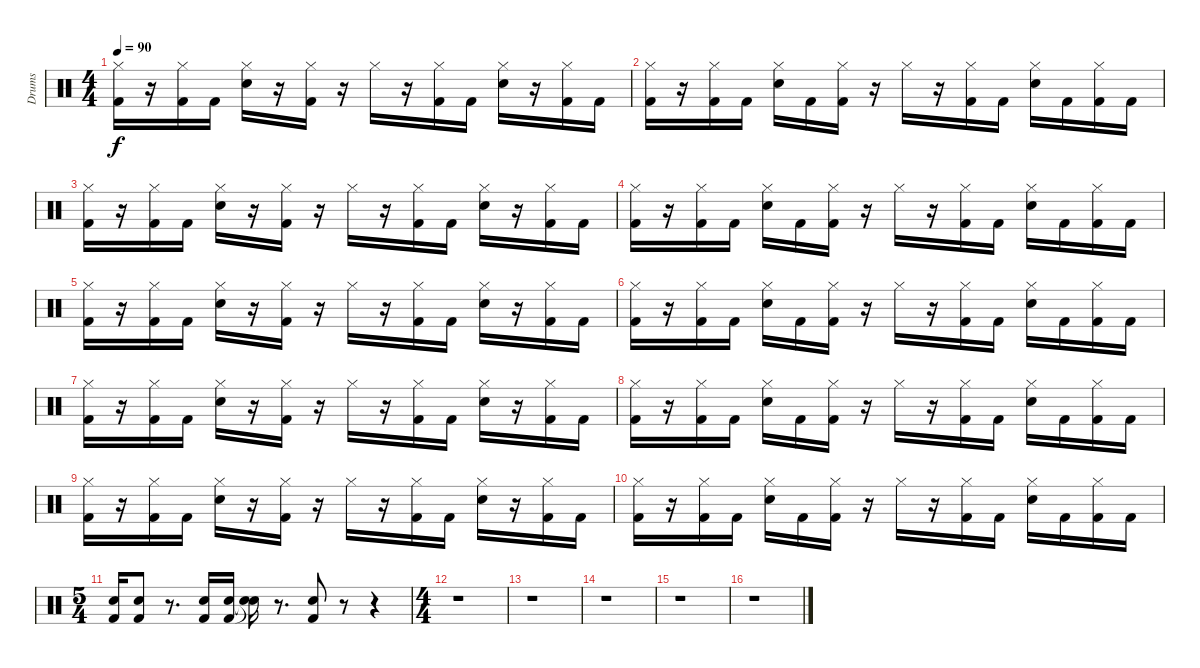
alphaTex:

\track ("Drums" "Drums") {instrument percussion}
\staff {score}
\articulation defaults
\ts (4 4)
\tempo 90
\clef neutral
\ks c
("Hi-Hat (closed)" "Kick (hit) 2").16{dy f} r.16 ("Hi-Hat (closed)" "Kick (hit) 2").16 "Kick (hit) 2".16 ("Hi-Hat (closed)" "Electric Snare (hit)").16 r.16 ("Hi-Hat (closed)" "Kick (hit) 2").16 r.16 "Hi-Hat (closed)".16 r.16 ("Hi-Hat (closed)" "Kick (hit) 2").16 "Kick (hit) 2".16 ("Hi-Hat (closed)" "Electric Snare (hit)").16 r.16 ("Kick (hit) 2" "Hi-Hat (closed)").16 "Kick (hit) 2".16 |
("Hi-Hat (closed)" "Kick (hit) 2").16 r.16 ("Hi-Hat (closed)" "Kick (hit) 2").16 "Kick (hit) 2".16 ("Hi-Hat (closed)" "Electric Snare (hit)").16 "Kick (hit) 2".16 ("Hi-Hat (closed)" "Kick (hit) 2").16 r.16 "Hi-Hat (closed)".16 r.16 ("Hi-Hat (closed)" "Kick (hit) 2").16 "Kick (hit) 2".16 ("Hi-Hat (closed)" "Electric Snare (hit)").16 "Kick (hit) 2".16 ("Kick (hit) 2" "Hi-Hat (closed)").16 "Kick (hit) 2".16 |
("Hi-Hat (closed)" "Kick (hit) 2").16 r.16 ("Hi-Hat (closed)" "Kick (hit) 2").16 "Kick (hit) 2".16 ("Hi-Hat (closed)" "Electric Snare (hit)").16 r.16 ("Hi-Hat (closed)" "Kick (hit) 2").16 r.16 "Hi-Hat (closed)".16 r.16 ("Hi-Hat (closed)" "Kick (hit) 2").16 "Kick (hit) 2".16 ("Hi-Hat (closed)" "Electric Snare (hit)").16 r.16 ("Kick (hit) 2" "Hi-Hat (closed)").16 "Kick (hit) 2".16 |
("Hi-Hat (closed)" "Kick (hit) 2").16 r.16 ("Hi-Hat (closed)" "Kick (hit) 2").16 "Kick (hit) 2".16 ("Hi-Hat (closed)" "Electric Snare (hit)").16 "Kick (hit) 2".16 ("Hi-Hat (closed)" "Kick (hit) 2").16 r.16 "Hi-Hat (closed)".16 r.16 ("Hi-Hat (closed)" "Kick (hit) 2").16 "Kick (hit) 2".16 ("Hi-Hat (closed)" "Electric Snare (hit)").16 "Kick (hit) 2".16 ("Kick (hit) 2" "Hi-Hat (closed)").16 "Kick (hit) 2".16 |
("Hi-Hat (closed)" "Kick (hit) 2").16 r.16 ("Hi-Hat (closed)" "Kick (hit) 2").16 "Kick (hit) 2".16 ("Hi-Hat (closed)" "Electric Snare (hit)").16 r.16 ("Hi-Hat (closed)" "Kick (hit) 2").16 r.16 "Hi-Hat (closed)".16 r.16 ("Hi-Hat (closed)" "Kick (hit) 2").16 "Kick (hit) 2".16 ("Hi-Hat (closed)" "Electric Snare (hit)").16 r.16 ("Kick (hit) 2" "Hi-Hat (closed)").16 "Kick (hit) 2".16 |
("Hi-Hat (closed)" "Kick (hit) 2").16 r.16 ("Hi-Hat (closed)" "Kick (hit) 2").16 "Kick (hit) 2".16 ("Hi-Hat (closed)" "Electric Snare (hit)").16 "Kick (hit) 2".16 ("Hi-Hat (closed)" "Kick (hit) 2").16 r.16 "Hi-Hat (closed)".16 r.16 ("Hi-Hat (closed)" "Kick (hit) 2").16 "Kick (hit) 2".16 ("Hi-Hat (closed)" "Electric Snare (hit)").16 "Kick (hit) 2".16 ("Kick (hit) 2" "Hi-Hat (closed)").16 "Kick (hit) 2".16 |
("Hi-Hat (closed)" "Kick (hit) 2").16 r.16 ("Hi-Hat (closed)" "Kick (hit) 2").16 "Kick (hit) 2".16 ("Hi-Hat (closed)" "Electric Snare (hit)").16 r.16 ("Hi-Hat (closed)" "Kick (hit) 2").16 r.16 "Hi-Hat (closed)".16 r.16 ("Hi-Hat (closed)" "Kick (hit) 2").16 "Kick (hit) 2".16 ("Hi-Hat (closed)" "Electric Snare (hit)").16 r.16 ("Kick (hit) 2" "Hi-Hat (closed)").16 "Kick (hit) 2".16 |
("Hi-Hat (closed)" "Kick (hit) 2").16 r.16 ("Hi-Hat (closed)" "Kick (hit) 2").16 "Kick (hit) 2".16 ("Hi-Hat (closed)" "Electric Snare (hit)").16 "Kick (hit) 2".16 ("Hi-Hat (closed)" "Kick (hit) 2").16 r.16 "Hi-Hat (closed)".16 r.16 ("Hi-Hat (closed)" "Kick (hit) 2").16 "Kick (hit) 2".16 ("Hi-Hat (closed)" "Electric Snare (hit)").16 "Kick (hit) 2".16 ("Kick (hit) 2" "Hi-Hat (closed)").16 "Kick (hit) 2".16 |
("Hi-Hat (closed)" "Kick (hit) 2").16 r.16 ("Hi-Hat (closed)" "Kick (hit) 2").16 "Kick (hit) 2".16 ("Hi-Hat (closed)" "Electric Snare (hit)").16 r.16 ("Hi-Hat (closed)" "Kick (hit) 2").16 r.16 "Hi-Hat (closed)".16 r.16 ("Hi-Hat (closed)" "Kick (hit) 2").16 "Kick (hit) 2".16 ("Hi-Hat (closed)" "Electric Snare (hit)").16 r.16 ("Kick (hit) 2" "Hi-Hat (closed)").16 "Kick (hit) 2".16 |
("Hi-Hat (closed)" "Kick (hit) 2").16 r.16 ("Hi-Hat (closed)" "Kick (hit) 2").16 "Kick (hit) 2".16 ("Hi-Hat (closed)" "Electric Snare (hit)").16 "Kick (hit) 2".16 ("Hi-Hat (closed)" "Kick (hit) 2").16 r.16 "Hi-Hat (closed)".16 r.16 ("Hi-Hat (closed)" "Kick (hit) 2").16 "Kick (hit) 2".16 ("Hi-Hat (closed)" "Electric Snare (hit)").16 "Kick (hit) 2".16 ("Kick (hit) 2" "Hi-Hat (closed)").16 "Kick (hit) 2".16 |
\ts (5 4)
("Kick (hit) 2" "Electric Snare (hit)").16 ("Kick (hit) 2" "Electric Snare (hit)").8 r.8{d} ("Kick (hit) 2" "Electric Snare (hit)").16 ("Kick (hit) 2" "Electric Snare (hit)").16 ("Snare (hit)"{t} "Snare (hit)"{t}).16 r.8{d} ("Kick (hit) 2" "Electric Snare (hit)").8 r.8 r.4 |
\ts (4 4)
r.1 |
r.1 |
r.1 |
r.1 |
r.1
